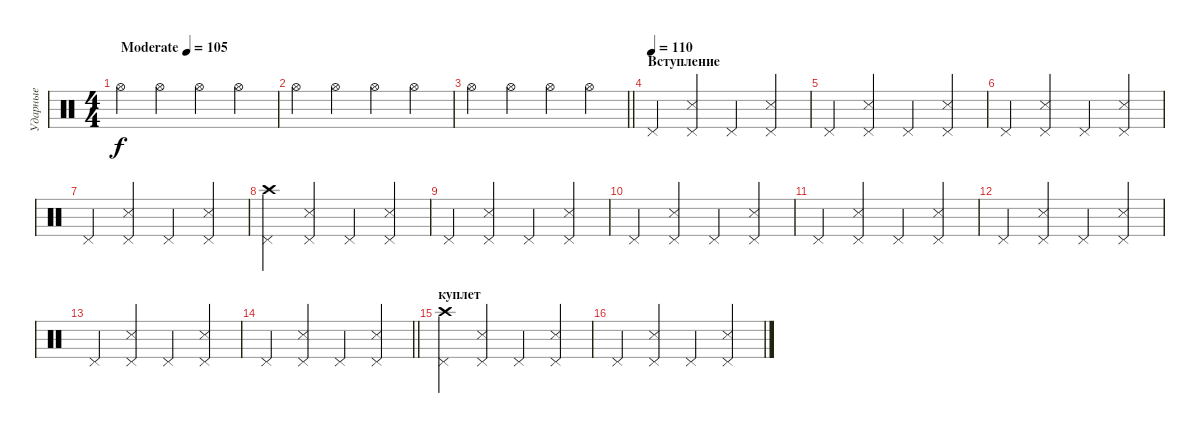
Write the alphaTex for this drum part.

\track ("Ударные" "Ударные") {instrument percussion}
\staff {score}
\articulation defaults
\ts (4 4)
\tempo (105 "Moderate")
\clef neutral
\ks c "Hi-Hat (open)".4{dy f} "Hi-Hat (open)".4 "Hi-Hat (open)".4 "Hi-Hat (open)".4
|
"Hi-Hat (open)".4 "Hi-Hat (open)".4 "Hi-Hat (open)".4 "Hi-Hat (open)".4 |
\barLineRight lightlight "Hi-Hat (open)".4 "Hi-Hat (open)".4 "Hi-Hat (open)".4 "Hi-Hat (open)".4
|
\section ("" "Вступление")
\tempo (110)
"Pedal Hi-Hat (hit)".4 ("Pedal Hi-Hat (hit)" "Snare (side stick) 3").4 "Pedal Hi-Hat (hit)".4 ("Pedal Hi-Hat (hit)" "Snare (side stick) 3").4 |
"Pedal Hi-Hat (hit)".4 ("Pedal Hi-Hat (hit)" "Snare (side stick) 3").4 "Pedal Hi-Hat (hit)".4 ("Pedal Hi-Hat (hit)" "Snare (side stick) 3").4 |
"Pedal Hi-Hat (hit)".4 ("Pedal Hi-Hat (hit)" "Snare (side stick) 3").4 "Pedal Hi-Hat (hit)".4 ("Pedal Hi-Hat (hit)" "Snare (side stick) 3").4 |
"Pedal Hi-Hat (hit)".4 ("Pedal Hi-Hat (hit)" "Snare (side stick) 3").4 "Pedal Hi-Hat (hit)".4 ("Pedal Hi-Hat (hit)" "Snare (side stick) 3").4 |
("Pedal Hi-Hat (hit)" "Crash high (hit)").4 ("Pedal Hi-Hat (hit)" "Snare (side stick) 3").4 "Pedal Hi-Hat (hit)".4 ("Pedal Hi-Hat (hit)" "Snare (side stick) 3").4 |
"Pedal Hi-Hat (hit)".4 ("Pedal Hi-Hat (hit)" "Snare (side stick) 3").4 "Pedal Hi-Hat (hit)".4 ("Pedal Hi-Hat (hit)" "Snare (side stick) 3").4 |
"Pedal Hi-Hat (hit)".4 ("Pedal Hi-Hat (hit)" "Snare (side stick) 3").4 "Pedal Hi-Hat (hit)".4 ("Pedal Hi-Hat (hit)" "Snare (side stick) 3").4 |
"Pedal Hi-Hat (hit)".4 ("Pedal Hi-Hat (hit)" "Snare (side stick) 3").4 "Pedal Hi-Hat (hit)".4 ("Pedal Hi-Hat (hit)" "Snare (side stick) 3").4 |
"Pedal Hi-Hat (hit)".4 ("Pedal Hi-Hat (hit)" "Snare (side stick) 3").4 "Pedal Hi-Hat (hit)".4 ("Pedal Hi-Hat (hit)" "Snare (side stick) 3").4 |
"Pedal Hi-Hat (hit)".4 ("Pedal Hi-Hat (hit)" "Snare (side stick) 3").4 "Pedal Hi-Hat (hit)".4 ("Pedal Hi-Hat (hit)" "Snare (side stick) 3").4 |
\barLineRight lightlight "Pedal Hi-Hat (hit)".4
("Pedal Hi-Hat (hit)" "Snare (side stick) 3").4 "Pedal Hi-Hat (hit)".4 ("Pedal Hi-Hat (hit)" "Snare (side stick) 3").4 |
\section ("" "куплет")
("Pedal Hi-Hat (hit)" "Crash high (hit)").4 ("Pedal Hi-Hat (hit)" "Snare (side stick) 3").4 "Pedal Hi-Hat (hit)".4 ("Pedal Hi-Hat (hit)" "Snare (side stick) 3").4 |
"Pedal Hi-Hat (hit)".4 ("Pedal Hi-Hat (hit)" "Snare (side stick) 3").4 "Pedal Hi-Hat (hit)".4 ("Pedal Hi-Hat (hit)" "Snare (side stick) 3").4
